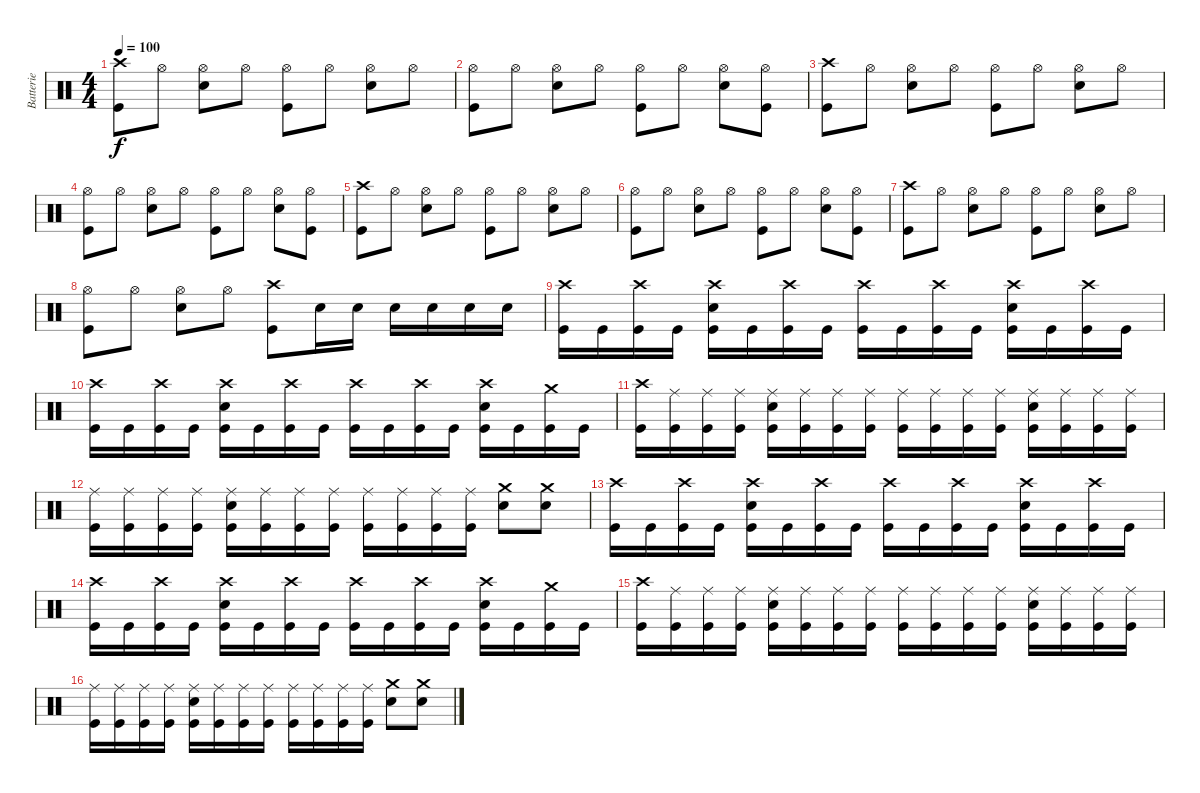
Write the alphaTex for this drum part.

\track ("Batterie" "Batterie") {instrument percussion}
\staff {score}
\articulation defaults
\ts (4 4)
\tempo 100
\clef neutral
\ks c
("Crash high (hit)" "Kick (hit)").8{dy f} "Hi-Hat (open)".8 ("Hi-Hat (open)" "Electric Snare (hit)").8 "Hi-Hat (open)".8 ("Hi-Hat (open)" "Kick (hit)").8 "Hi-Hat (open)".8 ("Hi-Hat (open)" "Electric Snare (hit)").8 "Hi-Hat (open)".8 |
("Hi-Hat (open)" "Kick (hit)").8 "Hi-Hat (open)".8 ("Hi-Hat (open)" "Electric Snare (hit)").8 "Hi-Hat (open)".8 ("Hi-Hat (open)" "Kick (hit)").8 "Hi-Hat (open)".8 ("Hi-Hat (open)" "Electric Snare (hit)").8 ("Hi-Hat (open)" "Kick (hit)").8 |
("Crash high (hit)" "Kick (hit)").8 "Hi-Hat (open)".8 ("Hi-Hat (open)" "Electric Snare (hit)").8 "Hi-Hat (open)".8 ("Hi-Hat (open)" "Kick (hit)").8 "Hi-Hat (open)".8 ("Hi-Hat (open)" "Electric Snare (hit)").8 "Hi-Hat (open)".8 |
("Hi-Hat (open)" "Kick (hit)").8 "Hi-Hat (open)".8 ("Hi-Hat (open)" "Electric Snare (hit)").8 "Hi-Hat (open)".8 ("Hi-Hat (open)" "Kick (hit)").8 "Hi-Hat (open)".8 ("Hi-Hat (open)" "Electric Snare (hit)").8 ("Hi-Hat (open)" "Kick (hit)").8 |
("Crash high (hit)" "Kick (hit)").8 "Hi-Hat (open)".8 ("Hi-Hat (open)" "Electric Snare (hit)").8 "Hi-Hat (open)".8 ("Hi-Hat (open)" "Kick (hit)").8 "Hi-Hat (open)".8 ("Hi-Hat (open)" "Electric Snare (hit)").8 "Hi-Hat (open)".8 |
("Hi-Hat (open)" "Kick (hit)").8 "Hi-Hat (open)".8 ("Hi-Hat (open)" "Electric Snare (hit)").8 "Hi-Hat (open)".8 ("Hi-Hat (open)" "Kick (hit)").8 "Hi-Hat (open)".8 ("Hi-Hat (open)" "Electric Snare (hit)").8 ("Hi-Hat (open)" "Kick (hit)").8 |
("Crash high (hit)" "Kick (hit)").8 "Hi-Hat (open)".8 ("Hi-Hat (open)" "Electric Snare (hit)").8 "Hi-Hat (open)".8 ("Hi-Hat (open)" "Kick (hit)").8 "Hi-Hat (open)".8 ("Hi-Hat (open)" "Electric Snare (hit)").8 "Hi-Hat (open)".8 |
("Hi-Hat (open)" "Kick (hit)").8 "Hi-Hat (open)".8 ("Hi-Hat (open)" "Electric Snare (hit)").8 "Hi-Hat (open)".8 ("Crash high (hit)" "Kick (hit)").8 "Electric Snare (hit)".16 "Electric Snare (hit)".16 "Electric Snare (hit)".16 "Electric Snare (hit)".16 "Electric Snare (hit)".16 "Electric Snare (hit)".16 |
("Crash high (hit)" "Kick (hit)").16 "Kick (hit)".16 ("Crash high (hit)" "Kick (hit)").16 "Kick (hit)".16 ("Crash high (hit)" "Electric Snare (hit)" "Kick (hit)").16 "Kick (hit)".16 ("Crash high (hit)" "Kick (hit)").16 "Kick (hit)".16 ("Crash high (hit)" "Kick (hit)").16 "Kick (hit)".16 ("Crash high (hit)" "Kick (hit)").16 "Kick (hit)".16 ("Crash high (hit)" "Electric Snare (hit)" "Kick (hit)").16 "Kick (hit)".16 ("Crash high (hit)" "Kick (hit)").16 "Kick (hit)".16 |
("Crash high (hit)" "Kick (hit)").16 "Kick (hit)".16 ("Crash high (hit)" "Kick (hit)").16 "Kick (hit)".16 ("Crash high (hit)" "Electric Snare (hit)" "Kick (hit)").16 "Kick (hit)".16 ("Crash high (hit)" "Kick (hit)").16 "Kick (hit)".16 ("Crash high (hit)" "Kick (hit)").16 "Kick (hit)".16 ("Crash high (hit)" "Kick (hit)").16 "Kick (hit)".16 ("Crash high (hit)" "Electric Snare (hit)" "Kick (hit)").16 "Kick (hit)".16 ("Crash medium (hit)" "Kick (hit)").16 "Kick (hit)".16 |
("Crash high (hit)" "Kick (hit)").16 ("Ride (middle)" "Kick (hit)").16 ("Ride (middle)" "Kick (hit)").16 ("Ride (middle)" "Kick (hit)").16 ("Ride (middle)" "Electric Snare (hit)" "Kick (hit)").16 ("Ride (middle)" "Kick (hit)").16 ("Ride (middle)" "Kick (hit)").16 ("Ride (middle)" "Kick (hit)").16 ("Ride (middle)" "Kick (hit)").16 ("Ride (middle)" "Kick (hit)").16 ("Ride (middle)" "Kick (hit)").16 ("Ride (middle)" "Kick (hit)").16 ("Ride (middle)" "Electric Snare (hit)" "Kick (hit)").16 ("Ride (middle)" "Kick (hit)").16 ("Ride (middle)" "Kick (hit)").16 ("Ride (middle)" "Kick (hit)").16 |
("Ride (middle)" "Kick (hit)").16 ("Ride (middle)" "Kick (hit)").16 ("Ride (middle)" "Kick (hit)").16 ("Ride (middle)" "Kick (hit)").16 ("Ride (middle)" "Electric Snare (hit)" "Kick (hit)").16 ("Ride (middle)" "Kick (hit)").16 ("Ride (middle)" "Kick (hit)").16 ("Ride (middle)" "Kick (hit)").16 ("Ride (middle)" "Kick (hit)").16 ("Ride (middle)" "Kick (hit)").16 ("Ride (middle)" "Kick (hit)").16 ("Ride (middle)" "Kick (hit)").16 ("Crash medium (hit)" "Electric Snare (hit)").8 ("Crash medium (hit)" "Electric Snare (hit)").8 |
("Crash high (hit)" "Kick (hit)").16 "Kick (hit)".16 ("Crash high (hit)" "Kick (hit)").16 "Kick (hit)".16 ("Crash high (hit)" "Electric Snare (hit)" "Kick (hit)").16 "Kick (hit)".16 ("Crash high (hit)" "Kick (hit)").16 "Kick (hit)".16 ("Crash high (hit)" "Kick (hit)").16 "Kick (hit)".16 ("Crash high (hit)" "Kick (hit)").16 "Kick (hit)".16 ("Crash high (hit)" "Electric Snare (hit)" "Kick (hit)").16 "Kick (hit)".16 ("Crash high (hit)" "Kick (hit)").16 "Kick (hit)".16 |
("Crash high (hit)" "Kick (hit)").16 "Kick (hit)".16 ("Crash high (hit)" "Kick (hit)").16 "Kick (hit)".16 ("Crash high (hit)" "Electric Snare (hit)" "Kick (hit)").16 "Kick (hit)".16 ("Crash high (hit)" "Kick (hit)").16 "Kick (hit)".16 ("Crash high (hit)" "Kick (hit)").16 "Kick (hit)".16 ("Crash high (hit)" "Kick (hit)").16 "Kick (hit)".16 ("Crash high (hit)" "Electric Snare (hit)" "Kick (hit)").16 "Kick (hit)".16 ("Crash medium (hit)" "Kick (hit)").16 "Kick (hit)".16 |
("Crash high (hit)" "Kick (hit)").16 ("Ride (middle)" "Kick (hit)").16 ("Ride (middle)" "Kick (hit)").16 ("Ride (middle)" "Kick (hit)").16 ("Ride (middle)" "Electric Snare (hit)" "Kick (hit)").16 ("Ride (middle)" "Kick (hit)").16 ("Ride (middle)" "Kick (hit)").16 ("Ride (middle)" "Kick (hit)").16 ("Ride (middle)" "Kick (hit)").16 ("Ride (middle)" "Kick (hit)").16 ("Ride (middle)" "Kick (hit)").16 ("Ride (middle)" "Kick (hit)").16 ("Ride (middle)" "Electric Snare (hit)" "Kick (hit)").16 ("Ride (middle)" "Kick (hit)").16 ("Ride (middle)" "Kick (hit)").16 ("Ride (middle)" "Kick (hit)").16 |
("Ride (middle)" "Kick (hit)").16 ("Ride (middle)" "Kick (hit)").16 ("Ride (middle)" "Kick (hit)").16 ("Ride (middle)" "Kick (hit)").16 ("Ride (middle)" "Electric Snare (hit)" "Kick (hit)").16 ("Ride (middle)" "Kick (hit)").16 ("Ride (middle)" "Kick (hit)").16 ("Ride (middle)" "Kick (hit)").16 ("Ride (middle)" "Kick (hit)").16 ("Ride (middle)" "Kick (hit)").16 ("Ride (middle)" "Kick (hit)").16 ("Ride (middle)" "Kick (hit)").16 ("Crash medium (hit)" "Electric Snare (hit)").8 ("Crash medium (hit)" "Electric Snare (hit)").8
